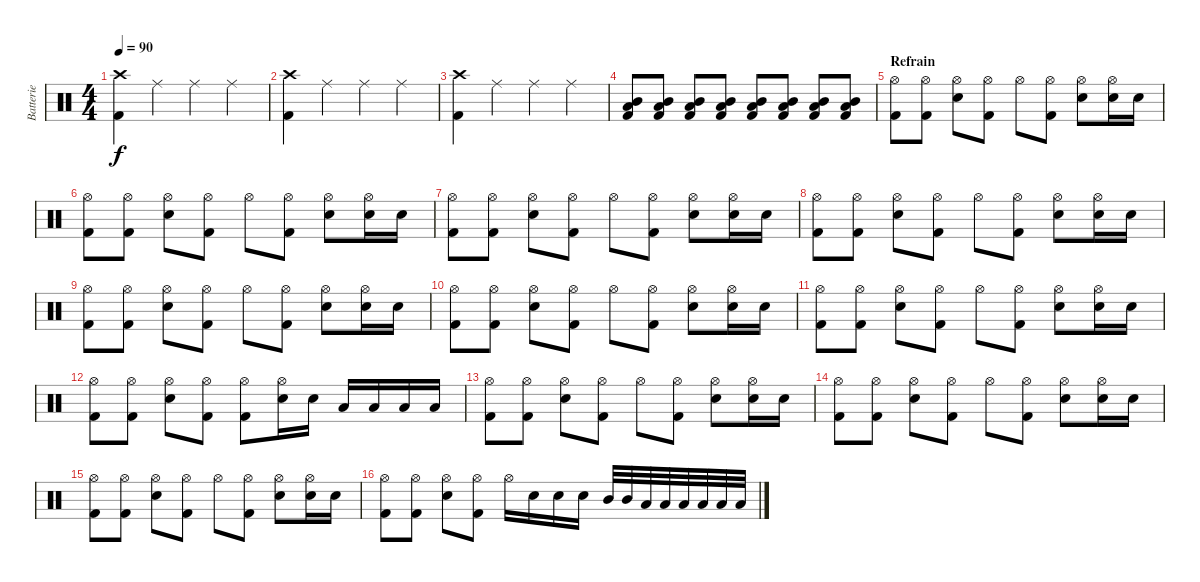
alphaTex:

\track ("Batterie" "Batterie") {instrument percussion}
\staff {score}
\articulation defaults
\ts (4 4)
\tempo 90
\clef neutral
\ks c
("Kick (hit) 2" "Crash high (hit)").4{dy f} "Ride (middle)".4 "Ride (middle)".4 "Ride (middle)".4 |
("Kick (hit) 2" "Crash high (hit)").4 "Ride (middle)".4 "Ride (middle)".4 "Ride (middle)".4 |
("Kick (hit) 2" "Crash high (hit)").4 "Ride (middle)".4 "Ride (middle)".4 "Ride (middle)".4 |
("Low Tom (hit)" "Mid Tom (hit)" "Kick (hit) 2").8 ("Low Tom (hit)" "Mid Tom (hit)" "Kick (hit) 2").8 ("Low Tom (hit)" "Mid Tom (hit)" "Kick (hit) 2").8 ("Low Tom (hit)" "Mid Tom (hit)" "Kick (hit) 2").8 ("Low Tom (hit)" "Mid Tom (hit)" "Kick (hit) 2").8 ("Low Tom (hit)" "Mid Tom (hit)" "Kick (hit) 2").8 ("Low Tom (hit)" "Mid Tom (hit)" "Kick (hit) 2").8 ("Low Tom (hit)" "Mid Tom (hit)" "Kick (hit) 2").8 |
\section ("" "Refrain")
("Hi-Hat (open)" "Kick (hit) 2").8 ("Hi-Hat (open)" "Kick (hit) 2").8 ("Hi-Hat (open)" "Electric Snare (hit)").8 ("Hi-Hat (open)" "Kick (hit) 2").8 "Hi-Hat (open)".8 ("Hi-Hat (open)" "Kick (hit) 2").8 ("Hi-Hat (open)" "Electric Snare (hit)").8 ("Hi-Hat (open)" "Electric Snare (hit)").16 "Electric Snare (hit)".16 |
("Hi-Hat (open)" "Kick (hit) 2").8 ("Hi-Hat (open)" "Kick (hit) 2").8 ("Hi-Hat (open)" "Electric Snare (hit)").8 ("Hi-Hat (open)" "Kick (hit) 2").8 "Hi-Hat (open)".8 ("Hi-Hat (open)" "Kick (hit) 2").8 ("Hi-Hat (open)" "Electric Snare (hit)").8 ("Hi-Hat (open)" "Electric Snare (hit)").16 "Electric Snare (hit)".16 |
("Hi-Hat (open)" "Kick (hit) 2").8 ("Hi-Hat (open)" "Kick (hit) 2").8 ("Hi-Hat (open)" "Electric Snare (hit)").8 ("Hi-Hat (open)" "Kick (hit) 2").8 "Hi-Hat (open)".8 ("Hi-Hat (open)" "Kick (hit) 2").8 ("Hi-Hat (open)" "Electric Snare (hit)").8 ("Hi-Hat (open)" "Electric Snare (hit)").16 "Electric Snare (hit)".16 |
("Hi-Hat (open)" "Kick (hit) 2").8 ("Hi-Hat (open)" "Kick (hit) 2").8 ("Hi-Hat (open)" "Electric Snare (hit)").8 ("Hi-Hat (open)" "Kick (hit) 2").8 "Hi-Hat (open)".8 ("Hi-Hat (open)" "Kick (hit) 2").8 ("Hi-Hat (open)" "Electric Snare (hit)").8 ("Hi-Hat (open)" "Electric Snare (hit)").16 "Electric Snare (hit)".16 |
("Hi-Hat (open)" "Kick (hit) 2").8 ("Hi-Hat (open)" "Kick (hit) 2").8 ("Hi-Hat (open)" "Electric Snare (hit)").8 ("Hi-Hat (open)" "Kick (hit) 2").8 "Hi-Hat (open)".8 ("Hi-Hat (open)" "Kick (hit) 2").8 ("Hi-Hat (open)" "Electric Snare (hit)").8 ("Hi-Hat (open)" "Electric Snare (hit)").16 "Electric Snare (hit)".16 |
("Hi-Hat (open)" "Kick (hit) 2").8 ("Hi-Hat (open)" "Kick (hit) 2").8 ("Hi-Hat (open)" "Electric Snare (hit)").8 ("Hi-Hat (open)" "Kick (hit) 2").8 "Hi-Hat (open)".8 ("Hi-Hat (open)" "Kick (hit) 2").8 ("Hi-Hat (open)" "Electric Snare (hit)").8 ("Hi-Hat (open)" "Electric Snare (hit)").16 "Electric Snare (hit)".16 |
("Hi-Hat (open)" "Kick (hit) 2").8 ("Hi-Hat (open)" "Kick (hit) 2").8 ("Hi-Hat (open)" "Electric Snare (hit)").8 ("Hi-Hat (open)" "Kick (hit) 2").8 "Hi-Hat (open)".8 ("Hi-Hat (open)" "Kick (hit) 2").8 ("Hi-Hat (open)" "Electric Snare (hit)").8 ("Hi-Hat (open)" "Electric Snare (hit)").16 "Electric Snare (hit)".16 |
("Hi-Hat (open)" "Kick (hit) 2").8 ("Hi-Hat (open)" "Kick (hit) 2").8 ("Hi-Hat (open)" "Electric Snare (hit)").8 ("Hi-Hat (open)" "Kick (hit) 2").8 ("Hi-Hat (open)" "Kick (hit) 2").8 ("Hi-Hat (open)" "Electric Snare (hit)").16 "Electric Snare (hit)".16 "Low Tom (hit)".16 "Low Tom (hit)".16 "Low Tom (hit)".16 "Low Tom (hit)".16 |
("Hi-Hat (open)" "Kick (hit) 2").8 ("Hi-Hat (open)" "Kick (hit) 2").8 ("Hi-Hat (open)" "Electric Snare (hit)").8 ("Hi-Hat (open)" "Kick (hit) 2").8 "Hi-Hat (open)".8 ("Hi-Hat (open)" "Kick (hit) 2").8 ("Hi-Hat (open)" "Electric Snare (hit)").8 ("Hi-Hat (open)" "Electric Snare (hit)").16 "Electric Snare (hit)".16 |
("Hi-Hat (open)" "Kick (hit) 2").8 ("Hi-Hat (open)" "Kick (hit) 2").8 ("Hi-Hat (open)" "Electric Snare (hit)").8 ("Hi-Hat (open)" "Kick (hit) 2").8 "Hi-Hat (open)".8 ("Hi-Hat (open)" "Kick (hit) 2").8 ("Hi-Hat (open)" "Electric Snare (hit)").8 ("Hi-Hat (open)" "Electric Snare (hit)").16 "Electric Snare (hit)".16 |
("Hi-Hat (open)" "Kick (hit) 2").8 ("Hi-Hat (open)" "Kick (hit) 2").8 ("Hi-Hat (open)" "Electric Snare (hit)").8 ("Hi-Hat (open)" "Kick (hit) 2").8 "Hi-Hat (open)".8 ("Hi-Hat (open)" "Kick (hit) 2").8 ("Hi-Hat (open)" "Electric Snare (hit)").8 ("Hi-Hat (open)" "Electric Snare (hit)").16 "Electric Snare (hit)".16 |
("Hi-Hat (open)" "Kick (hit) 2").8 ("Hi-Hat (open)" "Kick (hit) 2").8 ("Hi-Hat (open)" "Electric Snare (hit)").8 ("Hi-Hat (open)" "Kick (hit) 2").8 "Hi-Hat (open)".16 "Electric Snare (hit)".16 "Electric Snare (hit)".16 "Electric Snare (hit)".16 "Mid Tom (hit)".32 "Mid Tom (hit)".32 "Low Tom (hit)".32 "Low Tom (hit)".32 "Low Tom (hit)".32 "Low Tom (hit)".32 "Low Tom (hit)".32 "Low Tom (hit)".32
